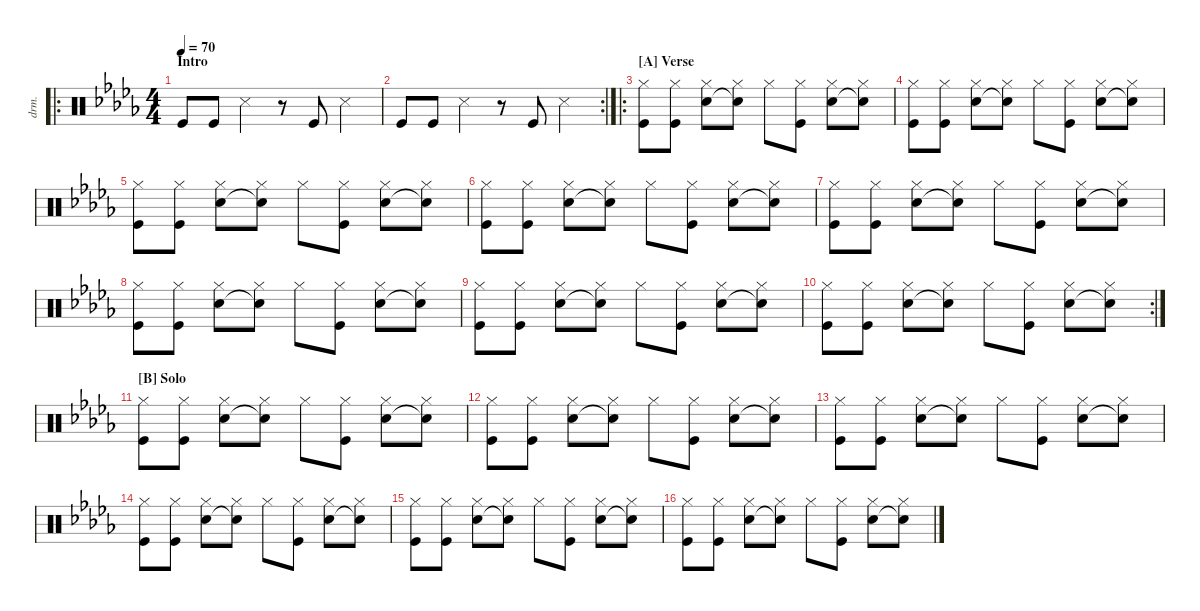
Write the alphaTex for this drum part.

\defaultSystemsLayout 4
\hideDynamics
\bracketExtendMode nobrackets
\track ("Drumkit" "drm.") {instrument percussion}
\staff {score}
\articulation defaults
\ro
\ts (4 4)
\section ("" "Intro")
\tempo 70
\clef neutral
\ks db "Kick (hit)"{acc forcenatural}.8{dy ppp} "Kick (hit)"{acc forcenatural}.8 "Snare (side stick) 3"{acc forcenatural}.4
r.8 "Kick (hit)"{acc forcenatural}.8 "Snare (side stick) 3"{acc forcenatural}.4 |
\rc 2 "Kick (hit)"{acc forcenatural}.8 "Kick (hit)"{acc forcenatural}.8 "Snare (side stick) 3"{acc forcenatural}.4
r.8 "Kick (hit)"{acc forcenatural}.8 "Snare (side stick) 3"{acc forcenatural}.4 |
\ro
\section ("A" "Verse")
("Kick (hit)"{acc forcenatural} "Hi-Hat (closed)"{acc forcenatural}).8{dy pp} ("Kick (hit)"{acc forcenatural} "Hi-Hat (closed)"{acc forcenatural}).8 ("Snare (hit) 2"{acc forcenatural} "Hi-Hat (closed)"{acc forcenatural}).8 ("Snare (hit) 2"{t acc forcenatural} "Hi-Hat (closed)"{acc forcenatural}).8 "Hi-Hat (closed)"{acc forcenatural}.8 ("Kick (hit)"{acc forcenatural} "Hi-Hat (closed)"{acc forcenatural}).8 ("Snare (hit) 2"{acc forcenatural} "Hi-Hat (closed)"{acc forcenatural}).8 ("Snare (hit) 2"{t acc forcenatural} "Hi-Hat (closed)"{acc forcenatural}).8 |
("Kick (hit)"{acc forcenatural} "Hi-Hat (closed)"{acc forcenatural}).8 ("Kick (hit)"{acc forcenatural} "Hi-Hat (closed)"{acc forcenatural}).8 ("Snare (hit) 2"{acc forcenatural} "Hi-Hat (closed)"{acc forcenatural}).8 ("Snare (hit) 2"{t acc forcenatural} "Hi-Hat (closed)"{acc forcenatural}).8 "Hi-Hat (closed)"{acc forcenatural}.8 ("Kick (hit)"{acc forcenatural} "Hi-Hat (closed)"{acc forcenatural}).8 ("Snare (hit) 2"{acc forcenatural} "Hi-Hat (closed)"{acc forcenatural}).8 ("Snare (hit) 2"{t acc forcenatural} "Hi-Hat (closed)"{acc forcenatural}).8 |
("Kick (hit)"{acc forcenatural} "Hi-Hat (closed)"{acc forcenatural}).8 ("Kick (hit)"{acc forcenatural} "Hi-Hat (closed)"{acc forcenatural}).8 ("Snare (hit) 2"{acc forcenatural} "Hi-Hat (closed)"{acc forcenatural}).8 ("Snare (hit) 2"{t acc forcenatural} "Hi-Hat (closed)"{acc forcenatural}).8 "Hi-Hat (closed)"{acc forcenatural}.8 ("Kick (hit)"{acc forcenatural} "Hi-Hat (closed)"{acc forcenatural}).8 ("Snare (hit) 2"{acc forcenatural} "Hi-Hat (closed)"{acc forcenatural}).8 ("Snare (hit) 2"{t acc forcenatural} "Hi-Hat (closed)"{acc forcenatural}).8 |
("Kick (hit)"{acc forcenatural} "Hi-Hat (closed)"{acc forcenatural}).8 ("Kick (hit)"{acc forcenatural} "Hi-Hat (closed)"{acc forcenatural}).8 ("Snare (hit) 2"{acc forcenatural} "Hi-Hat (closed)"{acc forcenatural}).8 ("Snare (hit) 2"{t acc forcenatural} "Hi-Hat (closed)"{acc forcenatural}).8 "Hi-Hat (closed)"{acc forcenatural}.8 ("Kick (hit)"{acc forcenatural} "Hi-Hat (closed)"{acc forcenatural}).8 ("Snare (hit) 2"{acc forcenatural} "Hi-Hat (closed)"{acc forcenatural}).8 ("Snare (hit) 2"{t acc forcenatural} "Hi-Hat (closed)"{acc forcenatural}).8 |
("Kick (hit)"{acc forcenatural} "Hi-Hat (closed)"{acc forcenatural}).8 ("Kick (hit)"{acc forcenatural} "Hi-Hat (closed)"{acc forcenatural}).8 ("Snare (hit) 2"{acc forcenatural} "Hi-Hat (closed)"{acc forcenatural}).8 ("Snare (hit) 2"{t acc forcenatural} "Hi-Hat (closed)"{acc forcenatural}).8 "Hi-Hat (closed)"{acc forcenatural}.8 ("Kick (hit)"{acc forcenatural} "Hi-Hat (closed)"{acc forcenatural}).8 ("Snare (hit) 2"{acc forcenatural} "Hi-Hat (closed)"{acc forcenatural}).8 ("Snare (hit) 2"{t acc forcenatural} "Hi-Hat (closed)"{acc forcenatural}).8 |
("Kick (hit)"{acc forcenatural} "Hi-Hat (closed)"{acc forcenatural}).8 ("Kick (hit)"{acc forcenatural} "Hi-Hat (closed)"{acc forcenatural}).8 ("Snare (hit) 2"{acc forcenatural} "Hi-Hat (closed)"{acc forcenatural}).8 ("Snare (hit) 2"{t acc forcenatural} "Hi-Hat (closed)"{acc forcenatural}).8 "Hi-Hat (closed)"{acc forcenatural}.8 ("Kick (hit)"{acc forcenatural} "Hi-Hat (closed)"{acc forcenatural}).8 ("Snare (hit) 2"{acc forcenatural} "Hi-Hat (closed)"{acc forcenatural}).8 ("Snare (hit) 2"{t acc forcenatural} "Hi-Hat (closed)"{acc forcenatural}).8 |
("Kick (hit)"{acc forcenatural} "Hi-Hat (closed)"{acc forcenatural}).8 ("Kick (hit)"{acc forcenatural} "Hi-Hat (closed)"{acc forcenatural}).8 ("Snare (hit) 2"{acc forcenatural} "Hi-Hat (closed)"{acc forcenatural}).8 ("Snare (hit) 2"{t acc forcenatural} "Hi-Hat (closed)"{acc forcenatural}).8 "Hi-Hat (closed)"{acc forcenatural}.8 ("Kick (hit)"{acc forcenatural} "Hi-Hat (closed)"{acc forcenatural}).8 ("Snare (hit) 2"{acc forcenatural} "Hi-Hat (closed)"{acc forcenatural}).8 ("Snare (hit) 2"{t acc forcenatural} "Hi-Hat (closed)"{acc forcenatural}).8 |
\rc 2
("Kick (hit)"{acc forcenatural} "Hi-Hat (closed)"{acc forcenatural}).8 ("Kick (hit)"{acc forcenatural} "Hi-Hat (closed)"{acc forcenatural}).8 ("Snare (hit) 2"{acc forcenatural} "Hi-Hat (closed)"{acc forcenatural}).8 ("Snare (hit) 2"{t acc forcenatural} "Hi-Hat (closed)"{acc forcenatural}).8 "Hi-Hat (closed)"{acc forcenatural}.8 ("Kick (hit)"{acc forcenatural} "Hi-Hat (closed)"{acc forcenatural}).8 ("Snare (hit) 2"{acc forcenatural} "Hi-Hat (closed)"{acc forcenatural}).8 ("Snare (hit) 2"{t acc forcenatural} "Hi-Hat (closed)"{acc forcenatural}).8 |
\section ("B" "Solo")
("Kick (hit)"{acc forcenatural} "Hi-Hat (closed)"{acc forcenatural}).8 ("Kick (hit)"{acc forcenatural} "Hi-Hat (closed)"{acc forcenatural}).8 ("Snare (hit) 2"{acc forcenatural} "Hi-Hat (closed)"{acc forcenatural}).8 ("Snare (hit) 2"{t acc forcenatural} "Hi-Hat (closed)"{acc forcenatural}).8 "Hi-Hat (closed)"{acc forcenatural}.8 ("Kick (hit)"{acc forcenatural} "Hi-Hat (closed)"{acc forcenatural}).8 ("Snare (hit) 2"{acc forcenatural} "Hi-Hat (closed)"{acc forcenatural}).8 ("Snare (hit) 2"{t acc forcenatural} "Hi-Hat (closed)"{acc forcenatural}).8 |
("Kick (hit)"{acc forcenatural} "Hi-Hat (closed)"{acc forcenatural}).8 ("Kick (hit)"{acc forcenatural} "Hi-Hat (closed)"{acc forcenatural}).8 ("Snare (hit) 2"{acc forcenatural} "Hi-Hat (closed)"{acc forcenatural}).8 ("Snare (hit) 2"{t acc forcenatural} "Hi-Hat (closed)"{acc forcenatural}).8 "Hi-Hat (closed)"{acc forcenatural}.8 ("Kick (hit)"{acc forcenatural} "Hi-Hat (closed)"{acc forcenatural}).8 ("Snare (hit) 2"{acc forcenatural} "Hi-Hat (closed)"{acc forcenatural}).8 ("Snare (hit) 2"{t acc forcenatural} "Hi-Hat (closed)"{acc forcenatural}).8 |
("Kick (hit)"{acc forcenatural} "Hi-Hat (closed)"{acc forcenatural}).8 ("Kick (hit)"{acc forcenatural} "Hi-Hat (closed)"{acc forcenatural}).8 ("Snare (hit) 2"{acc forcenatural} "Hi-Hat (closed)"{acc forcenatural}).8 ("Snare (hit) 2"{t acc forcenatural} "Hi-Hat (closed)"{acc forcenatural}).8 "Hi-Hat (closed)"{acc forcenatural}.8 ("Kick (hit)"{acc forcenatural} "Hi-Hat (closed)"{acc forcenatural}).8 ("Snare (hit) 2"{acc forcenatural} "Hi-Hat (closed)"{acc forcenatural}).8 ("Snare (hit) 2"{t acc forcenatural} "Hi-Hat (closed)"{acc forcenatural}).8 |
("Kick (hit)"{acc forcenatural} "Hi-Hat (closed)"{acc forcenatural}).8 ("Kick (hit)"{acc forcenatural} "Hi-Hat (closed)"{acc forcenatural}).8 ("Snare (hit) 2"{acc forcenatural} "Hi-Hat (closed)"{acc forcenatural}).8 ("Snare (hit) 2"{t acc forcenatural} "Hi-Hat (closed)"{acc forcenatural}).8 "Hi-Hat (closed)"{acc forcenatural}.8 ("Kick (hit)"{acc forcenatural} "Hi-Hat (closed)"{acc forcenatural}).8 ("Snare (hit) 2"{acc forcenatural} "Hi-Hat (closed)"{acc forcenatural}).8 ("Snare (hit) 2"{t acc forcenatural} "Hi-Hat (closed)"{acc forcenatural}).8 |
("Kick (hit)"{acc forcenatural} "Hi-Hat (closed)"{acc forcenatural}).8 ("Kick (hit)"{acc forcenatural} "Hi-Hat (closed)"{acc forcenatural}).8 ("Snare (hit) 2"{acc forcenatural} "Hi-Hat (closed)"{acc forcenatural}).8 ("Snare (hit) 2"{t acc forcenatural} "Hi-Hat (closed)"{acc forcenatural}).8 "Hi-Hat (closed)"{acc forcenatural}.8 ("Kick (hit)"{acc forcenatural} "Hi-Hat (closed)"{acc forcenatural}).8 ("Snare (hit) 2"{acc forcenatural} "Hi-Hat (closed)"{acc forcenatural}).8 ("Snare (hit) 2"{t acc forcenatural} "Hi-Hat (closed)"{acc forcenatural}).8 |
("Kick (hit)"{acc forcenatural} "Hi-Hat (closed)"{acc forcenatural}).8 ("Kick (hit)"{acc forcenatural} "Hi-Hat (closed)"{acc forcenatural}).8 ("Snare (hit) 2"{acc forcenatural} "Hi-Hat (closed)"{acc forcenatural}).8 ("Snare (hit) 2"{t acc forcenatural} "Hi-Hat (closed)"{acc forcenatural}).8 "Hi-Hat (closed)"{acc forcenatural}.8 ("Kick (hit)"{acc forcenatural} "Hi-Hat (closed)"{acc forcenatural}).8 ("Snare (hit) 2"{acc forcenatural} "Hi-Hat (closed)"{acc forcenatural}).8 ("Snare (hit) 2"{t acc forcenatural} "Hi-Hat (closed)"{acc forcenatural}).8
